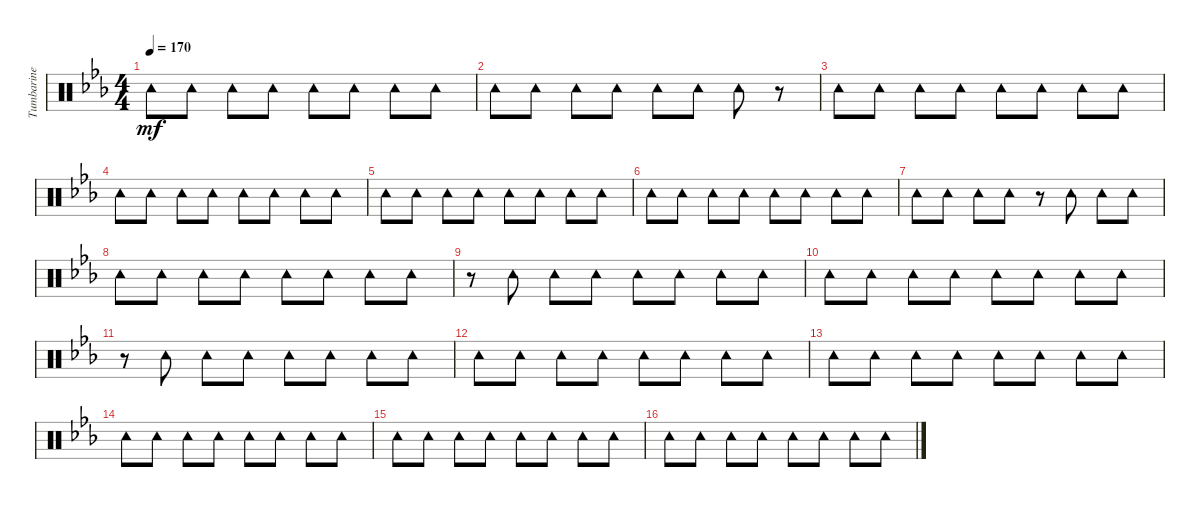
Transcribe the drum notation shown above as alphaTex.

\track ("Tumbarine" "Tumbarine") {solo instrument percussion}
\staff {score}
\articulation defaults
\ts (4 4)
\tempo 170
\clef neutral
\ks eb "Tambourine (hit)".8{dy mf} "Tambourine (hit)".8 "Tambourine (hit)".8 "Tambourine (hit)".8 "Tambourine (hit)".8 "Tambourine (hit)".8 "Tambourine (hit)".8 "Tambourine (hit)".8
|
"Tambourine (hit)".8 "Tambourine (hit)".8 "Tambourine (hit)".8 "Tambourine (hit)".8 "Tambourine (hit)".8 "Tambourine (hit)".8 "Tambourine (hit)".8 r.8 |
"Tambourine (hit)".8 "Tambourine (hit)".8 "Tambourine (hit)".8 "Tambourine (hit)".8 "Tambourine (hit)".8 "Tambourine (hit)".8 "Tambourine (hit)".8 "Tambourine (hit)".8 |
"Tambourine (hit)".8 "Tambourine (hit)".8 "Tambourine (hit)".8 "Tambourine (hit)".8 "Tambourine (hit)".8 "Tambourine (hit)".8 "Tambourine (hit)".8 "Tambourine (hit)".8 |
"Tambourine (hit)".8 "Tambourine (hit)".8 "Tambourine (hit)".8 "Tambourine (hit)".8 "Tambourine (hit)".8 "Tambourine (hit)".8 "Tambourine (hit)".8 "Tambourine (hit)".8 |
"Tambourine (hit)".8 "Tambourine (hit)".8 "Tambourine (hit)".8 "Tambourine (hit)".8 "Tambourine (hit)".8 "Tambourine (hit)".8 "Tambourine (hit)".8 "Tambourine (hit)".8 |
"Tambourine (hit)".8 "Tambourine (hit)".8 "Tambourine (hit)".8 "Tambourine (hit)".8 r.8 "Tambourine (hit)".8 "Tambourine (hit)".8 "Tambourine (hit)".8 |
"Tambourine (hit)".8 "Tambourine (hit)".8 "Tambourine (hit)".8 "Tambourine (hit)".8 "Tambourine (hit)".8 "Tambourine (hit)".8 "Tambourine (hit)".8 "Tambourine (hit)".8 |
r.8 "Tambourine (hit)".8 "Tambourine (hit)".8 "Tambourine (hit)".8 "Tambourine (hit)".8 "Tambourine (hit)".8 "Tambourine (hit)".8 "Tambourine (hit)".8 |
"Tambourine (hit)".8 "Tambourine (hit)".8 "Tambourine (hit)".8 "Tambourine (hit)".8 "Tambourine (hit)".8 "Tambourine (hit)".8 "Tambourine (hit)".8 "Tambourine (hit)".8 |
r.8 "Tambourine (hit)".8 "Tambourine (hit)".8 "Tambourine (hit)".8 "Tambourine (hit)".8 "Tambourine (hit)".8 "Tambourine (hit)".8 "Tambourine (hit)".8 |
"Tambourine (hit)".8 "Tambourine (hit)".8 "Tambourine (hit)".8 "Tambourine (hit)".8 "Tambourine (hit)".8 "Tambourine (hit)".8 "Tambourine (hit)".8 "Tambourine (hit)".8 |
"Tambourine (hit)".8 "Tambourine (hit)".8 "Tambourine (hit)".8 "Tambourine (hit)".8 "Tambourine (hit)".8 "Tambourine (hit)".8 "Tambourine (hit)".8 "Tambourine (hit)".8 |
"Tambourine (hit)".8 "Tambourine (hit)".8 "Tambourine (hit)".8 "Tambourine (hit)".8 "Tambourine (hit)".8 "Tambourine (hit)".8 "Tambourine (hit)".8 "Tambourine (hit)".8 |
"Tambourine (hit)".8 "Tambourine (hit)".8 "Tambourine (hit)".8 "Tambourine (hit)".8 "Tambourine (hit)".8 "Tambourine (hit)".8 "Tambourine (hit)".8 "Tambourine (hit)".8 |
"Tambourine (hit)".8 "Tambourine (hit)".8 "Tambourine (hit)".8 "Tambourine (hit)".8 "Tambourine (hit)".8 "Tambourine (hit)".8 "Tambourine (hit)".8 "Tambourine (hit)".8
